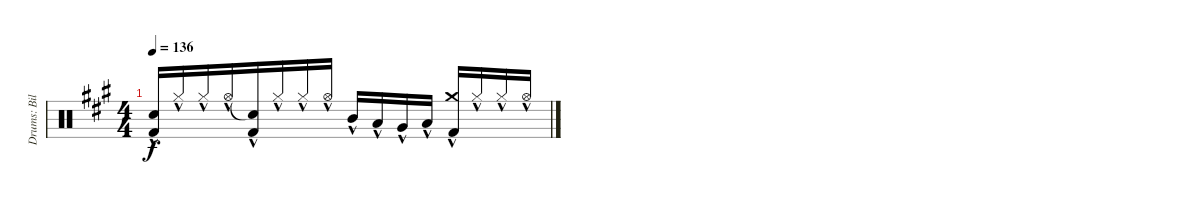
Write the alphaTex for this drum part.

\track ("Drums: Bill" "Drums: Bil") {instrument percussion}
\staff {score}
\articulation defaults
\ts (4 4)
\tempo 136
\clef neutral
\ks a
("Electric Snare (hit)"{hac} "Kick (hit) 2"{hac}).16{dy f beam Up beam merge} "Hi-Hat (closed)"{hac}.16{beam Up beam merge} "Hi-Hat (closed)"{hac}.16{beam Up beam merge} "Hi-Hat (open)"{hac}.16{beam Up beam merge} ("Snare (hit)"{t} "Kick (hit) 2"{hac}).16{beam Up beam merge} "Hi-Hat (closed)"{hac}.16{beam Up beam merge} "Hi-Hat (closed)"{hac}.16{beam Up beam merge} "Hi-Hat (open)"{hac}.16{beam Up} "Mid Tom (hit)"{hac}.16 "Low Tom (hit)"{hac}.16 "Very Low Tom (hit)"{hac}.16 "Low Floor Tom (hit)"{hac}.16 ("Crash medium (hit)"{hac} "Kick (hit) 2"{hac}).16{beam Up beam merge} "Hi-Hat (closed)"{hac}.16{beam Up beam merge} "Hi-Hat (closed)"{hac}.16{beam Up beam merge} "Hi-Hat (open)"{hac}.16{beam Up}
